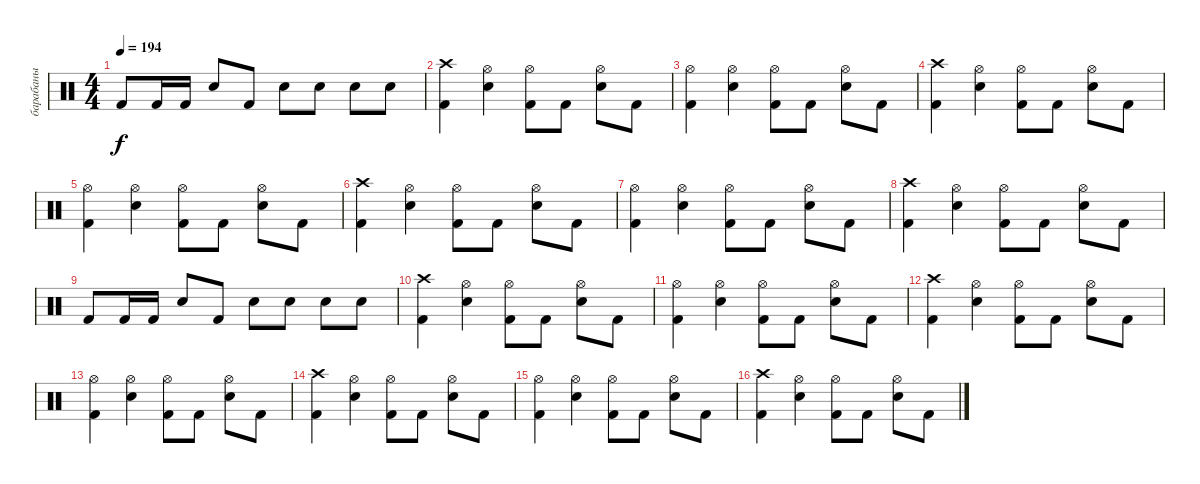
\track ("барабаны" "барабаны") {instrument percussion}
\staff {score}
\articulation defaults
\ts (4 4)
\tempo 194
\clef neutral
\ks c "Kick (hit) 2".8{dy f} "Kick (hit) 2".16 "Kick (hit) 2".16 "Snare (hit) 2".8 "Kick (hit) 2".8 "Snare (hit) 2".8 "Snare (hit) 2".8 "Snare (hit) 2".8 "Snare (hit) 2".8
|
("Crash high (hit)" "Kick (hit) 2").4 ("Hi-Hat (open)" "Snare (hit) 2").4 ("Hi-Hat (open)" "Kick (hit) 2").8 "Kick (hit) 2".8 ("Hi-Hat (open)" "Snare (hit) 2").8 "Kick (hit) 2".8 |
("Hi-Hat (open)" "Kick (hit) 2").4 ("Hi-Hat (open)" "Snare (hit) 2").4 ("Hi-Hat (open)" "Kick (hit) 2").8 "Kick (hit) 2".8 ("Hi-Hat (open)" "Snare (hit) 2").8 "Kick (hit) 2".8 |
("Crash high (hit)" "Kick (hit) 2").4 ("Hi-Hat (open)" "Snare (hit) 2").4 ("Hi-Hat (open)" "Kick (hit) 2").8 "Kick (hit) 2".8 ("Hi-Hat (open)" "Snare (hit) 2").8 "Kick (hit) 2".8 |
("Hi-Hat (open)" "Kick (hit) 2").4 ("Hi-Hat (open)" "Snare (hit) 2").4 ("Hi-Hat (open)" "Kick (hit) 2").8 "Kick (hit) 2".8 ("Hi-Hat (open)" "Snare (hit) 2").8 "Kick (hit) 2".8 |
("Crash high (hit)" "Kick (hit) 2").4 ("Hi-Hat (open)" "Snare (hit) 2").4 ("Hi-Hat (open)" "Kick (hit) 2").8 "Kick (hit) 2".8 ("Hi-Hat (open)" "Snare (hit) 2").8 "Kick (hit) 2".8 |
("Hi-Hat (open)" "Kick (hit) 2").4 ("Hi-Hat (open)" "Snare (hit) 2").4 ("Hi-Hat (open)" "Kick (hit) 2").8 "Kick (hit) 2".8 ("Hi-Hat (open)" "Snare (hit) 2").8 "Kick (hit) 2".8 |
("Crash high (hit)" "Kick (hit) 2").4 ("Hi-Hat (open)" "Snare (hit) 2").4 ("Hi-Hat (open)" "Kick (hit) 2").8 "Kick (hit) 2".8 ("Hi-Hat (open)" "Snare (hit) 2").8 "Kick (hit) 2".8 |
"Kick (hit) 2".8 "Kick (hit) 2".16 "Kick (hit) 2".16 "Snare (hit) 2".8 "Kick (hit) 2".8 "Snare (hit) 2".8 "Snare (hit) 2".8 "Snare (hit) 2".8 "Snare (hit) 2".8 |
("Crash high (hit)" "Kick (hit) 2").4 ("Hi-Hat (open)" "Snare (hit) 2").4 ("Hi-Hat (open)" "Kick (hit) 2").8 "Kick (hit) 2".8 ("Hi-Hat (open)" "Snare (hit) 2").8 "Kick (hit) 2".8 |
("Hi-Hat (open)" "Kick (hit) 2").4 ("Hi-Hat (open)" "Snare (hit) 2").4 ("Hi-Hat (open)" "Kick (hit) 2").8 "Kick (hit) 2".8 ("Hi-Hat (open)" "Snare (hit) 2").8 "Kick (hit) 2".8 |
("Crash high (hit)" "Kick (hit) 2").4 ("Hi-Hat (open)" "Snare (hit) 2").4 ("Hi-Hat (open)" "Kick (hit) 2").8 "Kick (hit) 2".8 ("Hi-Hat (open)" "Snare (hit) 2").8 "Kick (hit) 2".8 |
("Hi-Hat (open)" "Kick (hit) 2").4 ("Hi-Hat (open)" "Snare (hit) 2").4 ("Hi-Hat (open)" "Kick (hit) 2").8 "Kick (hit) 2".8 ("Hi-Hat (open)" "Snare (hit) 2").8 "Kick (hit) 2".8 |
("Crash high (hit)" "Kick (hit) 2").4 ("Hi-Hat (open)" "Snare (hit) 2").4 ("Hi-Hat (open)" "Kick (hit) 2").8 "Kick (hit) 2".8 ("Hi-Hat (open)" "Snare (hit) 2").8 "Kick (hit) 2".8 |
("Hi-Hat (open)" "Kick (hit) 2").4 ("Hi-Hat (open)" "Snare (hit) 2").4 ("Hi-Hat (open)" "Kick (hit) 2").8 "Kick (hit) 2".8 ("Hi-Hat (open)" "Snare (hit) 2").8 "Kick (hit) 2".8 |
("Crash high (hit)" "Kick (hit) 2").4 ("Hi-Hat (open)" "Snare (hit) 2").4 ("Hi-Hat (open)" "Kick (hit) 2").8 "Kick (hit) 2".8 ("Hi-Hat (open)" "Snare (hit) 2").8 "Kick (hit) 2".8
